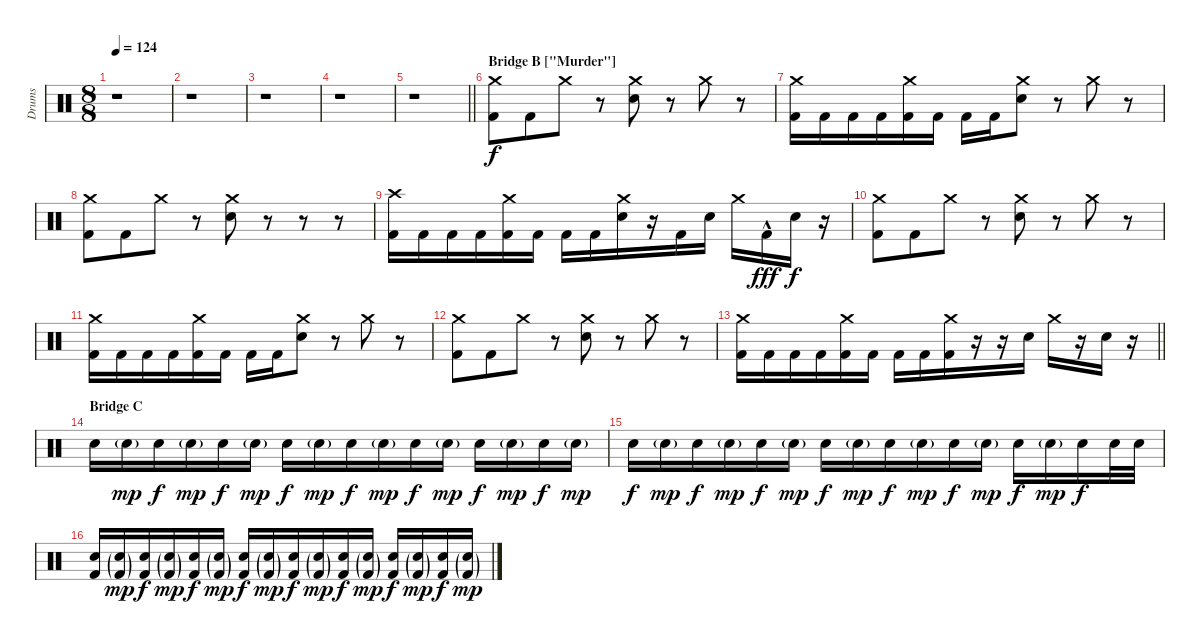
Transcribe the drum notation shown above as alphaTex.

\track ("Drums" "Drums") {instrument percussion}
\staff {score}
\articulation defaults
\ts (8 8)
\tempo 124
\clef neutral
\ks c
r.1{dy f} |
r.1 |
r.1 |
r.1 |
\barLineRight lightlight
r.1 |
\section ("" "Bridge B [\"Murder\"]")
("Crash medium (hit)" "Kick (hit) 2").8 "Kick (hit) 2".8 "Crash medium (hit)".8 r.8 ("Crash medium (hit)" "Electric Snare (hit)").8 r.8 "Crash medium (hit)".8 r.8 |
("Crash medium (hit)" "Kick (hit) 2").16 "Kick (hit) 2".16 "Kick (hit) 2".16 "Kick (hit) 2".16 ("Crash medium (hit)" "Kick (hit) 2").16 "Kick (hit) 2".16 "Kick (hit) 2".16 "Kick (hit) 2".16 ("Crash medium (hit)" "Electric Snare (hit)").8 r.8 "Crash medium (hit)".8 r.8 |
("Crash medium (hit)" "Kick (hit) 2").8 "Kick (hit) 2".8 "Crash medium (hit)".8 r.8 ("Crash medium (hit)" "Electric Snare (hit)").8 r.8 r.8 r.8 |
("Crash high (hit)" "Kick (hit) 2").16 "Kick (hit) 2".16 "Kick (hit) 2".16 "Kick (hit) 2".16 ("Crash medium (hit)" "Kick (hit) 2").16 "Kick (hit) 2".16 "Kick (hit) 2".16 "Kick (hit) 2".16 ("Crash medium (hit)" "Electric Snare (hit)").16 r.16 "Kick (hit) 2".16 "Electric Snare (hit)".16 "Crash medium (hit)".16 "Kick (hit) 2"{hac}.16{dy fff} "Electric Snare (hit)".16{dy f} r.16 |
("Crash medium (hit)" "Kick (hit) 2").8 "Kick (hit) 2".8 "Crash medium (hit)".8 r.8 ("Crash medium (hit)" "Electric Snare (hit)").8 r.8 "Crash medium (hit)".8 r.8 |
("Crash medium (hit)" "Kick (hit) 2").16 "Kick (hit) 2".16 "Kick (hit) 2".16 "Kick (hit) 2".16 ("Crash medium (hit)" "Kick (hit) 2").16 "Kick (hit) 2".16 "Kick (hit) 2".16 "Kick (hit) 2".16 ("Crash medium (hit)" "Electric Snare (hit)").8 r.8 "Crash medium (hit)".8 r.8 |
("Crash medium (hit)" "Kick (hit) 2").8 "Kick (hit) 2".8 "Crash medium (hit)".8 r.8 ("Crash medium (hit)" "Electric Snare (hit)").8 r.8 "Crash medium (hit)".8 r.8 |
\barLineRight lightlight
("Crash medium (hit)" "Kick (hit) 2").16 "Kick (hit) 2".16 "Kick (hit) 2".16 "Kick (hit) 2".16 ("Crash medium (hit)" "Kick (hit) 2").16 "Kick (hit) 2".16 "Kick (hit) 2".16 "Kick (hit) 2".16 ("Crash medium (hit)" "Kick (hit) 2").16 r.16 r.16 "Electric Snare (hit)".16 "Crash medium (hit)".16 r.16 "Electric Snare (hit)".16 r.16 |
\section ("" "Bridge C")
"Electric Snare (hit)".16 "Electric Snare (hit)"{g}.16{dy mp} "Electric Snare (hit)".16{dy f} "Electric Snare (hit)"{g}.16{dy mp} "Electric Snare (hit)".16{dy f} "Electric Snare (hit)"{g}.16{dy mp} "Electric Snare (hit)".16{dy f} "Electric Snare (hit)"{g}.16{dy mp} "Electric Snare (hit)".16{dy f} "Electric Snare (hit)"{g}.16{dy mp} "Electric Snare (hit)".16{dy f} "Electric Snare (hit)"{g}.16{dy mp} "Electric Snare (hit)".16{dy f} "Electric Snare (hit)"{g}.16{dy mp} "Electric Snare (hit)".16{dy f} "Electric Snare (hit)"{g}.16{dy mp} |
"Electric Snare (hit)".16{dy f} "Electric Snare (hit)"{g}.16{dy mp} "Electric Snare (hit)".16{dy f} "Electric Snare (hit)"{g}.16{dy mp} "Electric Snare (hit)".16{dy f} "Electric Snare (hit)"{g}.16{dy mp} "Electric Snare (hit)".16{dy f} "Electric Snare (hit)"{g}.16{dy mp} "Electric Snare (hit)".16{dy f} "Electric Snare (hit)"{g}.16{dy mp} "Electric Snare (hit)".16{dy f} "Electric Snare (hit)"{g}.16{dy mp} "Electric Snare (hit)".16{dy f} "Electric Snare (hit)"{g}.16{dy mp} "Electric Snare (hit)".16{dy f} "Electric Snare (hit)".32 "Electric Snare (hit)".32 |
("Kick (hit) 2" "Electric Snare (hit)").16 ("Kick (hit) 2"{g} "Electric Snare (hit)"{g}).16{dy mp} ("Kick (hit) 2" "Electric Snare (hit)").16{dy f} ("Kick (hit) 2"{g} "Electric Snare (hit)"{g}).16{dy mp} ("Kick (hit) 2" "Electric Snare (hit)").16{dy f} ("Kick (hit) 2"{g} "Electric Snare (hit)"{g}).16{dy mp} ("Kick (hit) 2" "Electric Snare (hit)").16{dy f} ("Kick (hit) 2"{g} "Electric Snare (hit)"{g}).16{dy mp} ("Kick (hit) 2" "Electric Snare (hit)").16{dy f} ("Kick (hit) 2"{g} "Electric Snare (hit)"{g}).16{dy mp} ("Kick (hit) 2" "Electric Snare (hit)").16{dy f} ("Kick (hit) 2"{g} "Electric Snare (hit)"{g}).16{dy mp} ("Kick (hit) 2" "Electric Snare (hit)").16{dy f} ("Kick (hit) 2"{g} "Electric Snare (hit)"{g}).16{dy mp} ("Kick (hit) 2" "Electric Snare (hit)").16{dy f} ("Kick (hit) 2"{g} "Electric Snare (hit)"{g}).16{dy mp}
